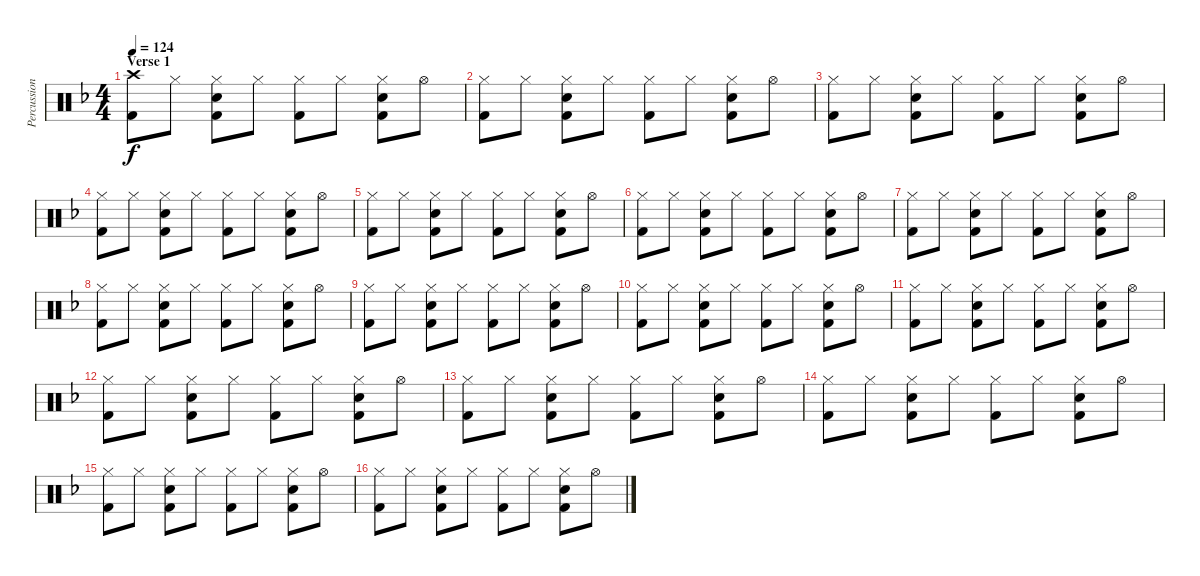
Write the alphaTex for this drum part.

\track ("Percussion" "Percussion") {instrument percussion}
\staff {score}
\articulation defaults
\ts (4 4)
\section ("" "Verse 1")
\tempo 124
\clef neutral
\ks f
("Crash high (hit)" "Kick (hit) 2").8{dy f} "Hi-Hat (closed)".8 ("Hi-Hat (closed)" "Electric Snare (hit)" "Kick (hit) 2").8 "Hi-Hat (closed)".8 ("Hi-Hat (closed)" "Kick (hit) 2").8 "Hi-Hat (closed)".8 ("Hi-Hat (closed)" "Electric Snare (hit)" "Kick (hit) 2").8 "Hi-Hat (open)".8 |
("Hi-Hat (closed)" "Kick (hit) 2").8 "Hi-Hat (closed)".8 ("Hi-Hat (closed)" "Electric Snare (hit)" "Kick (hit) 2").8 "Hi-Hat (closed)".8 ("Hi-Hat (closed)" "Kick (hit) 2").8 "Hi-Hat (closed)".8 ("Hi-Hat (closed)" "Electric Snare (hit)" "Kick (hit) 2").8 "Hi-Hat (open)".8 |
("Hi-Hat (closed)" "Kick (hit) 2").8 "Hi-Hat (closed)".8 ("Hi-Hat (closed)" "Electric Snare (hit)" "Kick (hit) 2").8 "Hi-Hat (closed)".8 ("Hi-Hat (closed)" "Kick (hit) 2").8 "Hi-Hat (closed)".8 ("Hi-Hat (closed)" "Electric Snare (hit)" "Kick (hit) 2").8 "Hi-Hat (open)".8 |
("Hi-Hat (closed)" "Kick (hit) 2").8 "Hi-Hat (closed)".8 ("Hi-Hat (closed)" "Electric Snare (hit)" "Kick (hit) 2").8 "Hi-Hat (closed)".8 ("Hi-Hat (closed)" "Kick (hit) 2").8 "Hi-Hat (closed)".8 ("Hi-Hat (closed)" "Electric Snare (hit)" "Kick (hit) 2").8 "Hi-Hat (open)".8 |
("Hi-Hat (closed)" "Kick (hit) 2").8 "Hi-Hat (closed)".8 ("Hi-Hat (closed)" "Electric Snare (hit)" "Kick (hit) 2").8 "Hi-Hat (closed)".8 ("Hi-Hat (closed)" "Kick (hit) 2").8 "Hi-Hat (closed)".8 ("Hi-Hat (closed)" "Electric Snare (hit)" "Kick (hit) 2").8 "Hi-Hat (open)".8 |
("Hi-Hat (closed)" "Kick (hit) 2").8 "Hi-Hat (closed)".8 ("Hi-Hat (closed)" "Electric Snare (hit)" "Kick (hit) 2").8 "Hi-Hat (closed)".8 ("Hi-Hat (closed)" "Kick (hit) 2").8 "Hi-Hat (closed)".8 ("Hi-Hat (closed)" "Electric Snare (hit)" "Kick (hit) 2").8 "Hi-Hat (open)".8 |
("Hi-Hat (closed)" "Kick (hit) 2").8 "Hi-Hat (closed)".8 ("Hi-Hat (closed)" "Electric Snare (hit)" "Kick (hit) 2").8 "Hi-Hat (closed)".8 ("Hi-Hat (closed)" "Kick (hit) 2").8 "Hi-Hat (closed)".8 ("Hi-Hat (closed)" "Electric Snare (hit)" "Kick (hit) 2").8 "Hi-Hat (open)".8 |
("Hi-Hat (closed)" "Kick (hit) 2").8 "Hi-Hat (closed)".8 ("Hi-Hat (closed)" "Electric Snare (hit)" "Kick (hit) 2").8 "Hi-Hat (closed)".8 ("Hi-Hat (closed)" "Kick (hit) 2").8 "Hi-Hat (closed)".8 ("Hi-Hat (closed)" "Electric Snare (hit)" "Kick (hit) 2").8 "Hi-Hat (open)".8 |
("Hi-Hat (closed)" "Kick (hit) 2").8 "Hi-Hat (closed)".8 ("Hi-Hat (closed)" "Electric Snare (hit)" "Kick (hit) 2").8 "Hi-Hat (closed)".8 ("Hi-Hat (closed)" "Kick (hit) 2").8 "Hi-Hat (closed)".8 ("Hi-Hat (closed)" "Electric Snare (hit)" "Kick (hit) 2").8 "Hi-Hat (open)".8 |
("Hi-Hat (closed)" "Kick (hit) 2").8 "Hi-Hat (closed)".8 ("Hi-Hat (closed)" "Electric Snare (hit)" "Kick (hit) 2").8 "Hi-Hat (closed)".8 ("Hi-Hat (closed)" "Kick (hit) 2").8 "Hi-Hat (closed)".8 ("Hi-Hat (closed)" "Electric Snare (hit)" "Kick (hit) 2").8 "Hi-Hat (open)".8 |
("Hi-Hat (closed)" "Kick (hit) 2").8 "Hi-Hat (closed)".8 ("Hi-Hat (closed)" "Electric Snare (hit)" "Kick (hit) 2").8 "Hi-Hat (closed)".8 ("Hi-Hat (closed)" "Kick (hit) 2").8 "Hi-Hat (closed)".8 ("Hi-Hat (closed)" "Electric Snare (hit)" "Kick (hit) 2").8 "Hi-Hat (open)".8 |
("Hi-Hat (closed)" "Kick (hit) 2").8 "Hi-Hat (closed)".8 ("Hi-Hat (closed)" "Electric Snare (hit)" "Kick (hit) 2").8 "Hi-Hat (closed)".8 ("Hi-Hat (closed)" "Kick (hit) 2").8 "Hi-Hat (closed)".8 ("Hi-Hat (closed)" "Electric Snare (hit)" "Kick (hit) 2").8 "Hi-Hat (open)".8 |
("Hi-Hat (closed)" "Kick (hit) 2").8 "Hi-Hat (closed)".8 ("Hi-Hat (closed)" "Electric Snare (hit)" "Kick (hit) 2").8 "Hi-Hat (closed)".8 ("Hi-Hat (closed)" "Kick (hit) 2").8 "Hi-Hat (closed)".8 ("Hi-Hat (closed)" "Electric Snare (hit)" "Kick (hit) 2").8 "Hi-Hat (open)".8 |
("Hi-Hat (closed)" "Kick (hit) 2").8 "Hi-Hat (closed)".8 ("Hi-Hat (closed)" "Electric Snare (hit)" "Kick (hit) 2").8 "Hi-Hat (closed)".8 ("Hi-Hat (closed)" "Kick (hit) 2").8 "Hi-Hat (closed)".8 ("Hi-Hat (closed)" "Electric Snare (hit)" "Kick (hit) 2").8 "Hi-Hat (open)".8 |
("Hi-Hat (closed)" "Kick (hit) 2").8 "Hi-Hat (closed)".8 ("Hi-Hat (closed)" "Electric Snare (hit)" "Kick (hit) 2").8 "Hi-Hat (closed)".8 ("Hi-Hat (closed)" "Kick (hit) 2").8 "Hi-Hat (closed)".8 ("Hi-Hat (closed)" "Electric Snare (hit)" "Kick (hit) 2").8 "Hi-Hat (open)".8 |
("Hi-Hat (closed)" "Kick (hit) 2").8 "Hi-Hat (closed)".8 ("Hi-Hat (closed)" "Electric Snare (hit)" "Kick (hit) 2").8 "Hi-Hat (closed)".8 ("Hi-Hat (closed)" "Kick (hit) 2").8 "Hi-Hat (closed)".8 ("Hi-Hat (closed)" "Electric Snare (hit)" "Kick (hit) 2").8 "Hi-Hat (open)".8
